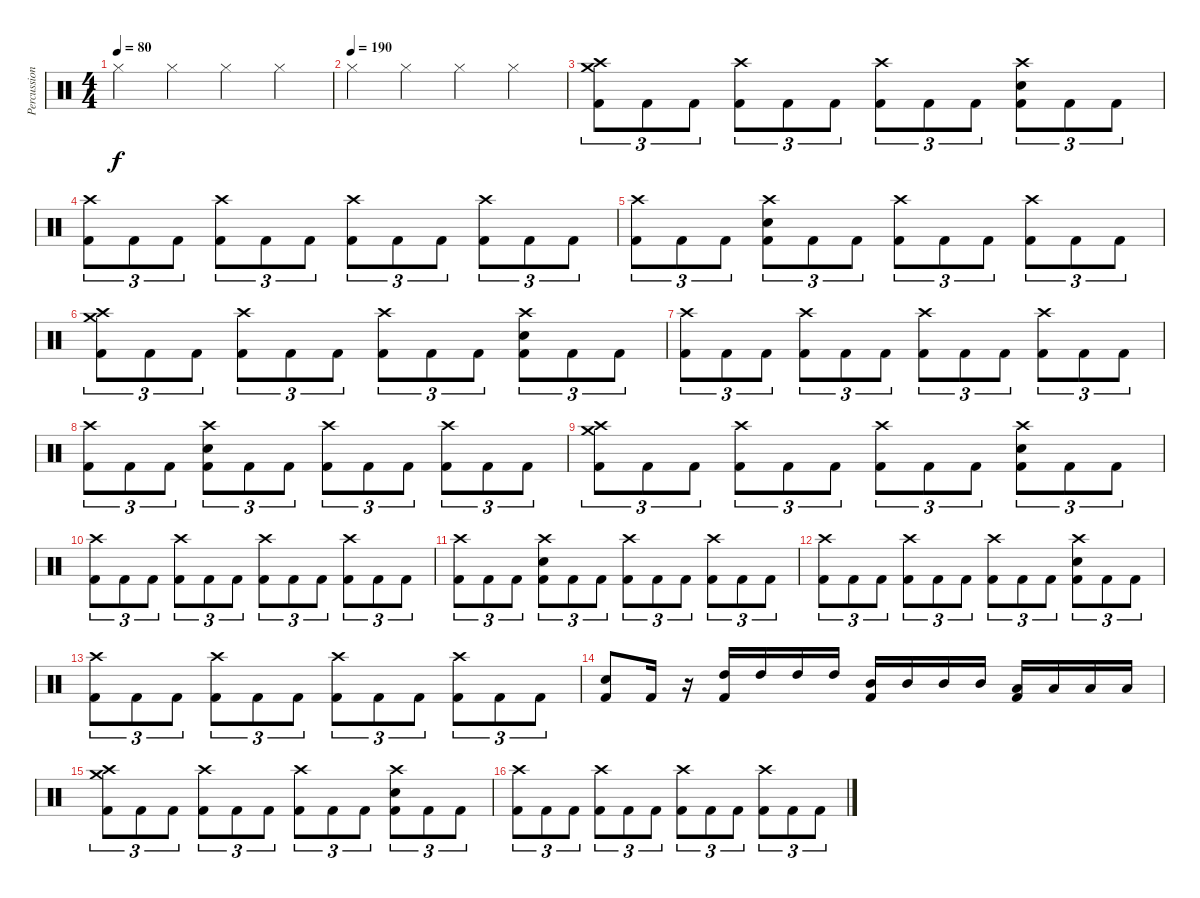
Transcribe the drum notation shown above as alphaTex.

\track ("Percussion" "Percussion") {instrument percussion}
\staff {score}
\articulation defaults
\ts (4 4)
\tempo 80
\clef neutral
\ks c "Hi-Hat (closed)".4{dy f} "Hi-Hat (closed)".4 "Hi-Hat (closed)".4 "Hi-Hat (closed)".4
|
\tempo (190)
"Hi-Hat (closed)".4 "Hi-Hat (closed)".4 "Hi-Hat (closed)".4 "Hi-Hat (closed)".4 |
("Crash medium (hit)" "Crash high (hit)" "Kick (hit) 2").8{tu (3 2)} "Kick (hit) 2".8{tu (3 2)} "Kick (hit) 2".8{tu (3 2)} ("Crash high (hit)" "Kick (hit) 2").8{tu (3 2)} "Kick (hit) 2".8{tu (3 2)} "Kick (hit) 2".8{tu (3 2)} ("Crash high (hit)" "Kick (hit) 2").8{tu (3 2)} "Kick (hit) 2".8{tu (3 2)} "Kick (hit) 2".8{tu (3 2)} ("Crash high (hit)" "Snare (hit) 2" "Kick (hit) 2").8{tu (3 2)} "Kick (hit) 2".8{tu (3 2)} "Kick (hit) 2".8{tu (3 2)} |
("Crash high (hit)" "Kick (hit) 2").8{tu (3 2)} "Kick (hit) 2".8{tu (3 2)} "Kick (hit) 2".8{tu (3 2)} ("Crash high (hit)" "Kick (hit) 2").8{tu (3 2)} "Kick (hit) 2".8{tu (3 2)} "Kick (hit) 2".8{tu (3 2)} ("Crash high (hit)" "Kick (hit) 2").8{tu (3 2)} "Kick (hit) 2".8{tu (3 2)} "Kick (hit) 2".8{tu (3 2)} ("Crash high (hit)" "Kick (hit) 2").8{tu (3 2)} "Kick (hit) 2".8{tu (3 2)} "Kick (hit) 2".8{tu (3 2)} |
("Crash high (hit)" "Kick (hit) 2").8{tu (3 2)} "Kick (hit) 2".8{tu (3 2)} "Kick (hit) 2".8{tu (3 2)} ("Crash high (hit)" "Snare (hit) 2" "Kick (hit) 2").8{tu (3 2)} "Kick (hit) 2".8{tu (3 2)} "Kick (hit) 2".8{tu (3 2)} ("Crash high (hit)" "Kick (hit) 2").8{tu (3 2)} "Kick (hit) 2".8{tu (3 2)} "Kick (hit) 2".8{tu (3 2)} ("Crash high (hit)" "Kick (hit) 2").8{tu (3 2)} "Kick (hit) 2".8{tu (3 2)} "Kick (hit) 2".8{tu (3 2)} |
("Crash medium (hit)" "Crash high (hit)" "Kick (hit) 2").8{tu (3 2)} "Kick (hit) 2".8{tu (3 2)} "Kick (hit) 2".8{tu (3 2)} ("Crash high (hit)" "Kick (hit) 2").8{tu (3 2)} "Kick (hit) 2".8{tu (3 2)} "Kick (hit) 2".8{tu (3 2)} ("Crash high (hit)" "Kick (hit) 2").8{tu (3 2)} "Kick (hit) 2".8{tu (3 2)} "Kick (hit) 2".8{tu (3 2)} ("Crash high (hit)" "Snare (hit) 2" "Kick (hit) 2").8{tu (3 2)} "Kick (hit) 2".8{tu (3 2)} "Kick (hit) 2".8{tu (3 2)} |
("Crash high (hit)" "Kick (hit) 2").8{tu (3 2)} "Kick (hit) 2".8{tu (3 2)} "Kick (hit) 2".8{tu (3 2)} ("Crash high (hit)" "Kick (hit) 2").8{tu (3 2)} "Kick (hit) 2".8{tu (3 2)} "Kick (hit) 2".8{tu (3 2)} ("Crash high (hit)" "Kick (hit) 2").8{tu (3 2)} "Kick (hit) 2".8{tu (3 2)} "Kick (hit) 2".8{tu (3 2)} ("Crash high (hit)" "Kick (hit) 2").8{tu (3 2)} "Kick (hit) 2".8{tu (3 2)} "Kick (hit) 2".8{tu (3 2)} |
("Crash high (hit)" "Kick (hit) 2").8{tu (3 2)} "Kick (hit) 2".8{tu (3 2)} "Kick (hit) 2".8{tu (3 2)} ("Crash high (hit)" "Snare (hit) 2" "Kick (hit) 2").8{tu (3 2)} "Kick (hit) 2".8{tu (3 2)} "Kick (hit) 2".8{tu (3 2)} ("Crash high (hit)" "Kick (hit) 2").8{tu (3 2)} "Kick (hit) 2".8{tu (3 2)} "Kick (hit) 2".8{tu (3 2)} ("Crash high (hit)" "Kick (hit) 2").8{tu (3 2)} "Kick (hit) 2".8{tu (3 2)} "Kick (hit) 2".8{tu (3 2)} |
("Crash medium (hit)" "Crash high (hit)" "Kick (hit) 2").8{tu (3 2)} "Kick (hit) 2".8{tu (3 2)} "Kick (hit) 2".8{tu (3 2)} ("Crash high (hit)" "Kick (hit) 2").8{tu (3 2)} "Kick (hit) 2".8{tu (3 2)} "Kick (hit) 2".8{tu (3 2)} ("Crash high (hit)" "Kick (hit) 2").8{tu (3 2)} "Kick (hit) 2".8{tu (3 2)} "Kick (hit) 2".8{tu (3 2)} ("Crash high (hit)" "Snare (hit) 2" "Kick (hit) 2").8{tu (3 2)} "Kick (hit) 2".8{tu (3 2)} "Kick (hit) 2".8{tu (3 2)} |
("Crash high (hit)" "Kick (hit) 2").8{tu (3 2)} "Kick (hit) 2".8{tu (3 2)} "Kick (hit) 2".8{tu (3 2)} ("Crash high (hit)" "Kick (hit) 2").8{tu (3 2)} "Kick (hit) 2".8{tu (3 2)} "Kick (hit) 2".8{tu (3 2)} ("Crash high (hit)" "Kick (hit) 2").8{tu (3 2)} "Kick (hit) 2".8{tu (3 2)} "Kick (hit) 2".8{tu (3 2)} ("Crash high (hit)" "Kick (hit) 2").8{tu (3 2)} "Kick (hit) 2".8{tu (3 2)} "Kick (hit) 2".8{tu (3 2)} |
("Crash high (hit)" "Kick (hit) 2").8{tu (3 2)} "Kick (hit) 2".8{tu (3 2)} "Kick (hit) 2".8{tu (3 2)} ("Crash high (hit)" "Snare (hit) 2" "Kick (hit) 2").8{tu (3 2)} "Kick (hit) 2".8{tu (3 2)} "Kick (hit) 2".8{tu (3 2)} ("Crash high (hit)" "Kick (hit) 2").8{tu (3 2)} "Kick (hit) 2".8{tu (3 2)} "Kick (hit) 2".8{tu (3 2)} ("Crash high (hit)" "Kick (hit) 2").8{tu (3 2)} "Kick (hit) 2".8{tu (3 2)} "Kick (hit) 2".8{tu (3 2)} |
("Crash high (hit)" "Kick (hit) 2").8{tu (3 2)} "Kick (hit) 2".8{tu (3 2)} "Kick (hit) 2".8{tu (3 2)} ("Crash high (hit)" "Kick (hit) 2").8{tu (3 2)} "Kick (hit) 2".8{tu (3 2)} "Kick (hit) 2".8{tu (3 2)} ("Crash high (hit)" "Kick (hit) 2").8{tu (3 2)} "Kick (hit) 2".8{tu (3 2)} "Kick (hit) 2".8{tu (3 2)} ("Crash high (hit)" "Snare (hit) 2" "Kick (hit) 2").8{tu (3 2)} "Kick (hit) 2".8{tu (3 2)} "Kick (hit) 2".8{tu (3 2)} |
("Crash high (hit)" "Kick (hit) 2").8{tu (3 2)} "Kick (hit) 2".8{tu (3 2)} "Kick (hit) 2".8{tu (3 2)} ("Crash high (hit)" "Kick (hit) 2").8{tu (3 2)} "Kick (hit) 2".8{tu (3 2)} "Kick (hit) 2".8{tu (3 2)} ("Crash high (hit)" "Kick (hit) 2").8{tu (3 2)} "Kick (hit) 2".8{tu (3 2)} "Kick (hit) 2".8{tu (3 2)} ("Crash high (hit)" "Kick (hit) 2").8{tu (3 2)} "Kick (hit) 2".8{tu (3 2)} "Kick (hit) 2".8{tu (3 2)} |
("Kick (hit) 2" "Snare (hit)").8 "Kick (hit) 2".16 r.16 ("High Tom (hit)" "Kick (hit) 2").16 "High Tom (hit)".16 "High Tom (hit)".16 "High Tom (hit)".16 ("Mid Tom (hit)" "Kick (hit) 2").16 "Mid Tom (hit)".16 "Mid Tom (hit)".16 "Mid Tom (hit)".16 ("Low Tom (hit)" "Kick (hit) 2").16 "Low Tom (hit)".16 "Low Tom (hit)".16 "Low Tom (hit)".16 |
("Crash medium (hit)" "Crash high (hit)" "Kick (hit) 2").8{tu (3 2)} "Kick (hit) 2".8{tu (3 2)} "Kick (hit) 2".8{tu (3 2)} ("Crash high (hit)" "Kick (hit) 2").8{tu (3 2)} "Kick (hit) 2".8{tu (3 2)} "Kick (hit) 2".8{tu (3 2)} ("Crash high (hit)" "Kick (hit) 2").8{tu (3 2)} "Kick (hit) 2".8{tu (3 2)} "Kick (hit) 2".8{tu (3 2)} ("Crash high (hit)" "Snare (hit) 2" "Kick (hit) 2").8{tu (3 2)} "Kick (hit) 2".8{tu (3 2)} "Kick (hit) 2".8{tu (3 2)} |
("Crash high (hit)" "Kick (hit) 2").8{tu (3 2)} "Kick (hit) 2".8{tu (3 2)} "Kick (hit) 2".8{tu (3 2)} ("Crash high (hit)" "Kick (hit) 2").8{tu (3 2)} "Kick (hit) 2".8{tu (3 2)} "Kick (hit) 2".8{tu (3 2)} ("Crash high (hit)" "Kick (hit) 2").8{tu (3 2)} "Kick (hit) 2".8{tu (3 2)} "Kick (hit) 2".8{tu (3 2)} ("Crash high (hit)" "Kick (hit) 2").8{tu (3 2)} "Kick (hit) 2".8{tu (3 2)} "Kick (hit) 2".8{tu (3 2)}
